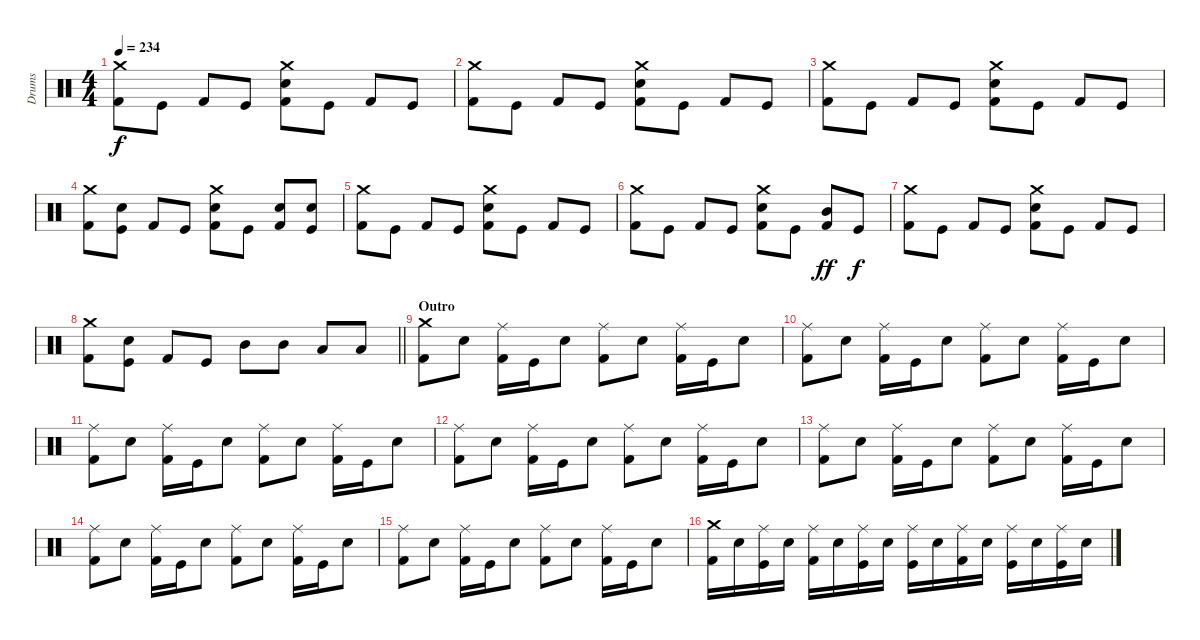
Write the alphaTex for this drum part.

\track ("Drums" "Drums") {instrument percussion}
\staff {score}
\articulation defaults
\ts (4 4)
\tempo 234
\clef neutral
\ks c
("Crash medium (hit)" "Kick (hit) 2").8{dy f} "Kick (hit)".8 "Kick (hit) 2".8 "Kick (hit)".8 ("Crash medium (hit)" "Snare (hit) 2" "Kick (hit) 2").8 "Kick (hit)".8 "Kick (hit) 2".8 "Kick (hit)".8 |
("Crash medium (hit)" "Kick (hit) 2").8 "Kick (hit)".8 "Kick (hit) 2".8 "Kick (hit)".8 ("Crash medium (hit)" "Snare (hit) 2" "Kick (hit) 2").8 "Kick (hit)".8 "Kick (hit) 2".8 "Kick (hit)".8 |
("Crash medium (hit)" "Kick (hit) 2").8 "Kick (hit)".8 "Kick (hit) 2".8 "Kick (hit)".8 ("Crash medium (hit)" "Snare (hit) 2" "Kick (hit) 2").8 "Kick (hit)".8 "Kick (hit) 2".8 "Kick (hit)".8 |
("Crash medium (hit)" "Kick (hit) 2").8 ("Snare (hit) 2" "Kick (hit)").8 "Kick (hit) 2".8 "Kick (hit)".8 ("Crash medium (hit)" "Snare (hit) 2" "Kick (hit) 2").8 "Kick (hit)".8 ("Snare (hit) 2" "Kick (hit) 2").8 ("Snare (hit) 2" "Kick (hit)").8 |
("Crash medium (hit)" "Kick (hit) 2").8 "Kick (hit)".8 "Kick (hit) 2".8 "Kick (hit)".8 ("Crash medium (hit)" "Snare (hit) 2" "Kick (hit) 2").8 "Kick (hit)".8 "Kick (hit) 2".8 "Kick (hit)".8 |
("Crash medium (hit)" "Kick (hit) 2").8 "Kick (hit)".8 "Kick (hit) 2".8 "Kick (hit)".8 ("Crash medium (hit)" "Snare (hit) 2" "Kick (hit) 2").8 "Kick (hit)".8 ("Mid Tom (hit)" "Kick (hit) 2").8{dy ff} "Kick (hit)".8{dy f} |
("Crash medium (hit)" "Kick (hit) 2").8 "Kick (hit)".8 "Kick (hit) 2".8 "Kick (hit)".8 ("Crash medium (hit)" "Snare (hit) 2" "Kick (hit) 2").8 "Kick (hit)".8 "Kick (hit) 2".8 "Kick (hit)".8 |
\barLineRight lightlight
("Crash medium (hit)" "Kick (hit) 2").8 ("Snare (hit) 2" "Kick (hit)").8 "Kick (hit) 2".8 "Kick (hit)".8 "Mid Tom (hit)".8 "Mid Tom (hit)".8 "Low Tom (hit)".8 "Low Tom (hit)".8 |
\section ("" "Outro")
("Crash medium (hit)" "Kick (hit) 2").8 "Snare (hit) 2".8 ("Ride (middle)" "Kick (hit) 2").16 "Kick (hit)".16 "Snare (hit) 2".8 ("Ride (middle)" "Kick (hit) 2").8 "Snare (hit) 2".8 ("Ride (middle)" "Kick (hit) 2").16 "Kick (hit)".16 "Snare (hit) 2".8 |
("Ride (middle)" "Kick (hit) 2").8 "Snare (hit) 2".8 ("Ride (middle)" "Kick (hit) 2").16 "Kick (hit)".16 "Snare (hit) 2".8 ("Ride (middle)" "Kick (hit) 2").8 "Snare (hit) 2".8 ("Ride (middle)" "Kick (hit) 2").16 "Kick (hit)".16 "Snare (hit) 2".8 |
("Ride (middle)" "Kick (hit) 2").8 "Snare (hit) 2".8 ("Ride (middle)" "Kick (hit) 2").16 "Kick (hit)".16 "Snare (hit) 2".8 ("Ride (middle)" "Kick (hit) 2").8 "Snare (hit) 2".8 ("Ride (middle)" "Kick (hit) 2").16 "Kick (hit)".16 "Snare (hit) 2".8 |
("Ride (middle)" "Kick (hit) 2").8 "Snare (hit) 2".8 ("Ride (middle)" "Kick (hit) 2").16 "Kick (hit)".16 "Snare (hit) 2".8 ("Ride (middle)" "Kick (hit) 2").8 "Snare (hit) 2".8 ("Ride (middle)" "Kick (hit) 2").16 "Kick (hit)".16 "Snare (hit) 2".8 |
("Ride (middle)" "Kick (hit) 2").8 "Snare (hit) 2".8 ("Ride (middle)" "Kick (hit) 2").16 "Kick (hit)".16 "Snare (hit) 2".8 ("Ride (middle)" "Kick (hit) 2").8 "Snare (hit) 2".8 ("Ride (middle)" "Kick (hit) 2").16 "Kick (hit)".16 "Snare (hit) 2".8 |
("Ride (middle)" "Kick (hit) 2").8 "Snare (hit) 2".8 ("Ride (middle)" "Kick (hit) 2").16 "Kick (hit)".16 "Snare (hit) 2".8 ("Ride (middle)" "Kick (hit) 2").8 "Snare (hit) 2".8 ("Ride (middle)" "Kick (hit) 2").16 "Kick (hit)".16 "Snare (hit) 2".8 |
("Ride (middle)" "Kick (hit) 2").8 "Snare (hit) 2".8 ("Ride (middle)" "Kick (hit) 2").16 "Kick (hit)".16 "Snare (hit) 2".8 ("Ride (middle)" "Kick (hit) 2").8 "Snare (hit) 2".8 ("Ride (middle)" "Kick (hit) 2").16 "Kick (hit)".16 "Snare (hit) 2".8 |
("Crash medium (hit)" "Kick (hit) 2").16 "Snare (hit) 2".16 ("Ride (middle)" "Kick (hit)").16 "Snare (hit) 2".16 ("Ride (middle)" "Kick (hit) 2").16 "Snare (hit) 2".16 ("Ride (middle)" "Kick (hit)").16 "Snare (hit) 2".16 ("Ride (middle)" "Kick (hit)").16 "Snare (hit) 2".16 ("Ride (middle)" "Kick (hit) 2").16 "Snare (hit) 2".16 ("Ride (middle)" "Kick (hit)").16 "Snare (hit) 2".16 ("Ride (middle)" "Kick (hit)").16 "Snare (hit) 2".16
